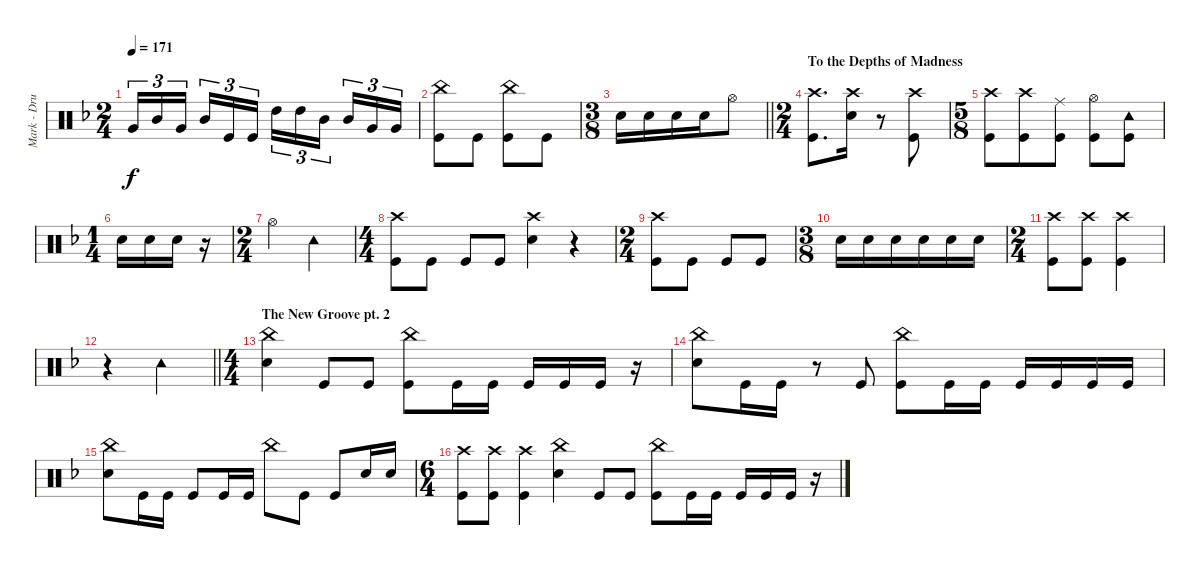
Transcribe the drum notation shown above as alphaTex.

\track ("Mark - Drums" "Mark - Dru") {instrument percussion}
\staff {score}
\articulation defaults
\ts (2 4)
\tempo 171
\clef neutral
\ks dminor "Very Low Tom (hit)".16{tu (3 2) dy f} "Mid Tom (hit)".16{tu (3 2)} "Very Low Tom (hit)".16{tu (3 2) beam splitsecondary} "Mid Tom (hit)".16{tu (3 2)} "Kick (hit)".16{tu (3 2)} "Kick (hit)".16{tu (3 2)} "High Tom (hit)".16{tu (3 2)} "High Tom (hit)".16{tu (3 2)} "Mid Tom (hit)".16{tu (3 2) beam splitsecondary} "Mid Tom (hit)".16{tu (3 2)} "Very Low Tom (hit)".16{tu (3 2)} "Very Low Tom (hit)".16{tu (3 2)}
|
("China (hit)" "Kick (hit)").8 "Kick (hit)".8 ("Kick (hit)" "China (hit)").8 "Kick (hit)".8 |
\ts (3 8)
\barLineRight lightlight "Snare (hit) 2".16 "Snare (hit) 2".16 "Snare (hit) 2".16 "Snare (hit) 2".16 "Hi-Hat (open)".8
|
\ts (2 4)
\section ("" "To the Depths of Madness")
("Kick (hit)" "Crash high (hit)").8{d} ("Snare (hit) 2" "Crash high (hit)").16 r.8 ("Kick (hit)" "Crash high (hit)").8 |
\ts (5 8)
("Kick (hit)" "Crash high (hit)").8 ("Kick (hit)" "Crash high (hit)").8 ("Kick (hit)" "Ride (middle)").8 ("Kick (hit)" "Hi-Hat (open)").8 ("Kick (hit)" "Tambourine (hit)").8 |
\ts (1 4)
"Snare (hit) 2".16 "Snare (hit) 2".16 "Snare (hit) 2".16 r.16 |
\ts (2 4)
"Hi-Hat (open)".4 "Tambourine (hit)".4 |
\ts (4 4)
("Kick (hit)" "Crash high (hit)").8 "Kick (hit)".8 "Kick (hit)".8 "Kick (hit)".8 ("Snare (hit) 2" "Crash high (hit)").4 r.4 |
\ts (2 4)
("Kick (hit)" "Crash high (hit)").8 "Kick (hit)".8 "Kick (hit)".8 "Kick (hit)".8 |
\ts (3 8)
"Snare (hit) 2".16 "Snare (hit) 2".16 "Snare (hit) 2".16 "Snare (hit) 2".16 "Snare (hit) 2".16 "Snare (hit) 2".16 |
\ts (2 4)
("Kick (hit)" "Crash high (hit)").8 ("Kick (hit)" "Crash high (hit)").8 ("Kick (hit)" "Crash high (hit)").4 |
\barLineRight lightlight
r.4 "Tambourine (hit)".4 |
\ts (4 4)
\section ("" "The New Groove pt. 2")
("Snare (hit) 2" "China (hit)").4 "Kick (hit)".8 "Kick (hit)".8 ("Kick (hit)" "China (hit)").8 "Kick (hit)".16 "Kick (hit)".16 "Kick (hit)".16 "Kick (hit)".16 "Kick (hit)".16 r.16 |
("China (hit)" "Snare (hit) 2").8 "Kick (hit)".16 "Kick (hit)".16 r.8 "Kick (hit)".8 ("Kick (hit)" "China (hit)").8 "Kick (hit)".16 "Kick (hit)".16 "Kick (hit)".16 "Kick (hit)".16 "Kick (hit)".16 "Kick (hit)".16 |
("Snare (hit) 2" "China (hit)").8 "Kick (hit)".16 "Kick (hit)".16 "Kick (hit)".8 "Kick (hit)".16 "Kick (hit)".16 "China (hit)".8 "Kick (hit)".8 "Kick (hit)".8 "Snare (hit) 2".16 "Snare (hit) 2".16 |
\ts (6 4)
("Kick (hit)" "Crash high (hit)").8 ("Kick (hit)" "Crash high (hit)").8 ("Kick (hit)" "Crash high (hit)").4 ("Snare (hit) 2" "China (hit)").4 "Kick (hit)".8 "Kick (hit)".8 ("Kick (hit)" "China (hit)").8 "Kick (hit)".16 "Kick (hit)".16 "Kick (hit)".16 "Kick (hit)".16 "Kick (hit)".16 r.16
